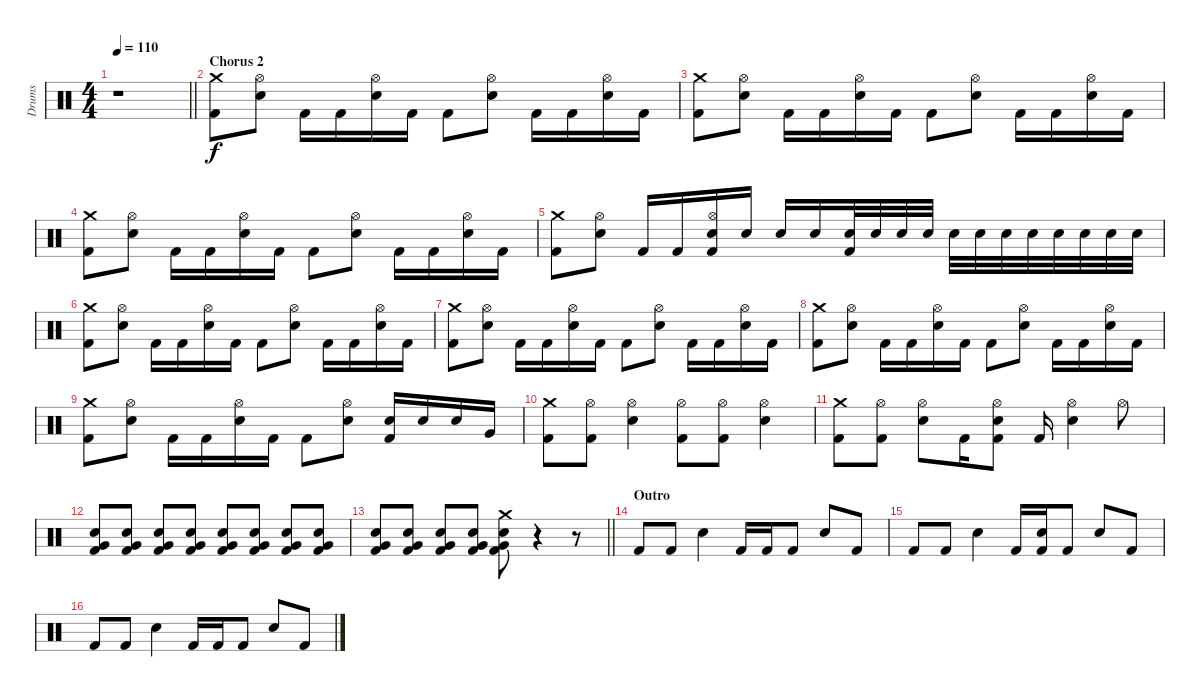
\track ("Drums" "Drums") {instrument percussion}
\staff {score}
\articulation defaults
\ts (4 4)
\tempo 110
\clef neutral
\barLineRight lightlight
\ks c
r.1{dy f} |
\section ("" "Chorus 2")
("Crash medium (hit)" "Kick (hit) 2").8 ("Hi-Hat (open)" "Electric Snare (hit)").8 "Kick (hit) 2".16 "Kick (hit) 2".16 ("Hi-Hat (open)" "Electric Snare (hit)").16 "Kick (hit) 2".16 "Kick (hit) 2".8 ("Hi-Hat (open)" "Electric Snare (hit)").8 "Kick (hit) 2".16 "Kick (hit) 2".16 ("Hi-Hat (open)" "Electric Snare (hit)").16 "Kick (hit) 2".16 |
("Crash medium (hit)" "Kick (hit) 2").8 ("Hi-Hat (open)" "Electric Snare (hit)").8 "Kick (hit) 2".16 "Kick (hit) 2".16 ("Hi-Hat (open)" "Electric Snare (hit)").16 "Kick (hit) 2".16 "Kick (hit) 2".8 ("Hi-Hat (open)" "Electric Snare (hit)").8 "Kick (hit) 2".16 "Kick (hit) 2".16 ("Hi-Hat (open)" "Electric Snare (hit)").16 "Kick (hit) 2".16 |
("Crash medium (hit)" "Kick (hit) 2").8 ("Hi-Hat (open)" "Electric Snare (hit)").8 "Kick (hit) 2".16 "Kick (hit) 2".16 ("Hi-Hat (open)" "Electric Snare (hit)").16 "Kick (hit) 2".16 "Kick (hit) 2".8 ("Hi-Hat (open)" "Electric Snare (hit)").8 "Kick (hit) 2".16 "Kick (hit) 2".16 ("Hi-Hat (open)" "Electric Snare (hit)").16 "Kick (hit) 2".16 |
("Crash medium (hit)" "Kick (hit) 2").8 ("Hi-Hat (open)" "Electric Snare (hit)").8 "Kick (hit) 2".16 "Kick (hit) 2".16 ("Hi-Hat (open)" "Electric Snare (hit)" "Kick (hit) 2").16 "Electric Snare (hit)".16 "Electric Snare (hit)".16 "Electric Snare (hit)".16 ("Electric Snare (hit)" "Kick (hit) 2").32 "Electric Snare (hit)".32 "Electric Snare (hit)".32 "Electric Snare (hit)".32 "Electric Snare (hit)".32 "Electric Snare (hit)".32 "Electric Snare (hit)".32 "Electric Snare (hit)".32 "Electric Snare (hit)".32 "Electric Snare (hit)".32 "Electric Snare (hit)".32 "Electric Snare (hit)".32 |
("Crash medium (hit)" "Kick (hit) 2").8 ("Hi-Hat (open)" "Electric Snare (hit)").8 "Kick (hit) 2".16 "Kick (hit) 2".16 ("Hi-Hat (open)" "Electric Snare (hit)").16 "Kick (hit) 2".16 "Kick (hit) 2".8 ("Hi-Hat (open)" "Electric Snare (hit)").8 "Kick (hit) 2".16 "Kick (hit) 2".16 ("Hi-Hat (open)" "Electric Snare (hit)").16 "Kick (hit) 2".16 |
("Crash medium (hit)" "Kick (hit) 2").8 ("Hi-Hat (open)" "Electric Snare (hit)").8 "Kick (hit) 2".16 "Kick (hit) 2".16 ("Hi-Hat (open)" "Electric Snare (hit)").16 "Kick (hit) 2".16 "Kick (hit) 2".8 ("Hi-Hat (open)" "Electric Snare (hit)").8 "Kick (hit) 2".16 "Kick (hit) 2".16 ("Hi-Hat (open)" "Electric Snare (hit)").16 "Kick (hit) 2".16 |
("Crash medium (hit)" "Kick (hit) 2").8 ("Hi-Hat (open)" "Electric Snare (hit)").8 "Kick (hit) 2".16 "Kick (hit) 2".16 ("Hi-Hat (open)" "Electric Snare (hit)").16 "Kick (hit) 2".16 "Kick (hit) 2".8 ("Hi-Hat (open)" "Electric Snare (hit)").8 "Kick (hit) 2".16 "Kick (hit) 2".16 ("Hi-Hat (open)" "Electric Snare (hit)").16 "Kick (hit) 2".16 |
("Crash medium (hit)" "Kick (hit) 2").8 ("Hi-Hat (open)" "Electric Snare (hit)").8 "Kick (hit) 2".16 "Kick (hit) 2".16 ("Hi-Hat (open)" "Electric Snare (hit)").16 "Kick (hit) 2".16 "Kick (hit) 2".8 ("Hi-Hat (open)" "Electric Snare (hit)").8 ("Electric Snare (hit)" "Kick (hit) 2").16 "Electric Snare (hit)".16 "Electric Snare (hit)".16 "Very Low Tom (hit)".16 |
("Crash medium (hit)" "Kick (hit) 2").8 ("Hi-Hat (open)" "Kick (hit) 2").8 ("Hi-Hat (open)" "Electric Snare (hit)").4 ("Hi-Hat (open)" "Kick (hit) 2").8 ("Hi-Hat (open)" "Kick (hit) 2").8 ("Hi-Hat (open)" "Electric Snare (hit)").4 |
("Crash medium (hit)" "Kick (hit) 2").8 ("Hi-Hat (open)" "Kick (hit) 2").8 ("Hi-Hat (open)" "Electric Snare (hit)").8 "Kick (hit) 2".16 ("Hi-Hat (open)" "Electric Snare (hit)" "Kick (hit) 2").8 "Kick (hit) 2".16 ("Hi-Hat (open)" "Electric Snare (hit)").4 "Hi-Hat (open)".8 |
("Very Low Tom (hit)" "Electric Snare (hit)" "Kick (hit) 2").8 ("Very Low Tom (hit)" "Electric Snare (hit)" "Kick (hit) 2").8 ("Very Low Tom (hit)" "Electric Snare (hit)" "Kick (hit) 2").8 ("Very Low Tom (hit)" "Electric Snare (hit)" "Kick (hit) 2").8 ("Very Low Tom (hit)" "Electric Snare (hit)" "Kick (hit) 2").8 ("Very Low Tom (hit)" "Electric Snare (hit)" "Kick (hit) 2").8 ("Very Low Tom (hit)" "Electric Snare (hit)" "Kick (hit) 2").8 ("Very Low Tom (hit)" "Electric Snare (hit)" "Kick (hit) 2").8 |
\barLineRight lightlight
("Very Low Tom (hit)" "Electric Snare (hit)" "Kick (hit) 2").8 ("Very Low Tom (hit)" "Electric Snare (hit)" "Kick (hit) 2").8 ("Very Low Tom (hit)" "Electric Snare (hit)" "Kick (hit) 2").8 ("Very Low Tom (hit)" "Electric Snare (hit)" "Kick (hit) 2").8 ("Crash medium (hit)" "Very Low Tom (hit)" "Electric Snare (hit)" "Kick (hit) 2").8 r.4 r.8 |
\section ("" "Outro")
"Kick (hit) 2".8 "Kick (hit) 2".8 "Electric Snare (hit)".4 "Kick (hit) 2".16 "Kick (hit) 2".16 "Kick (hit) 2".8 "Electric Snare (hit)".8 "Kick (hit) 2".8 |
"Kick (hit) 2".8 "Kick (hit) 2".8 "Electric Snare (hit)".4 "Kick (hit) 2".16 ("Electric Snare (hit)" "Kick (hit) 2").16 "Kick (hit) 2".8 "Electric Snare (hit)".8 "Kick (hit) 2".8 |
"Kick (hit) 2".8 "Kick (hit) 2".8 "Electric Snare (hit)".4 "Kick (hit) 2".16 "Kick (hit) 2".16 "Kick (hit) 2".8 "Electric Snare (hit)".8 "Kick (hit) 2".8
